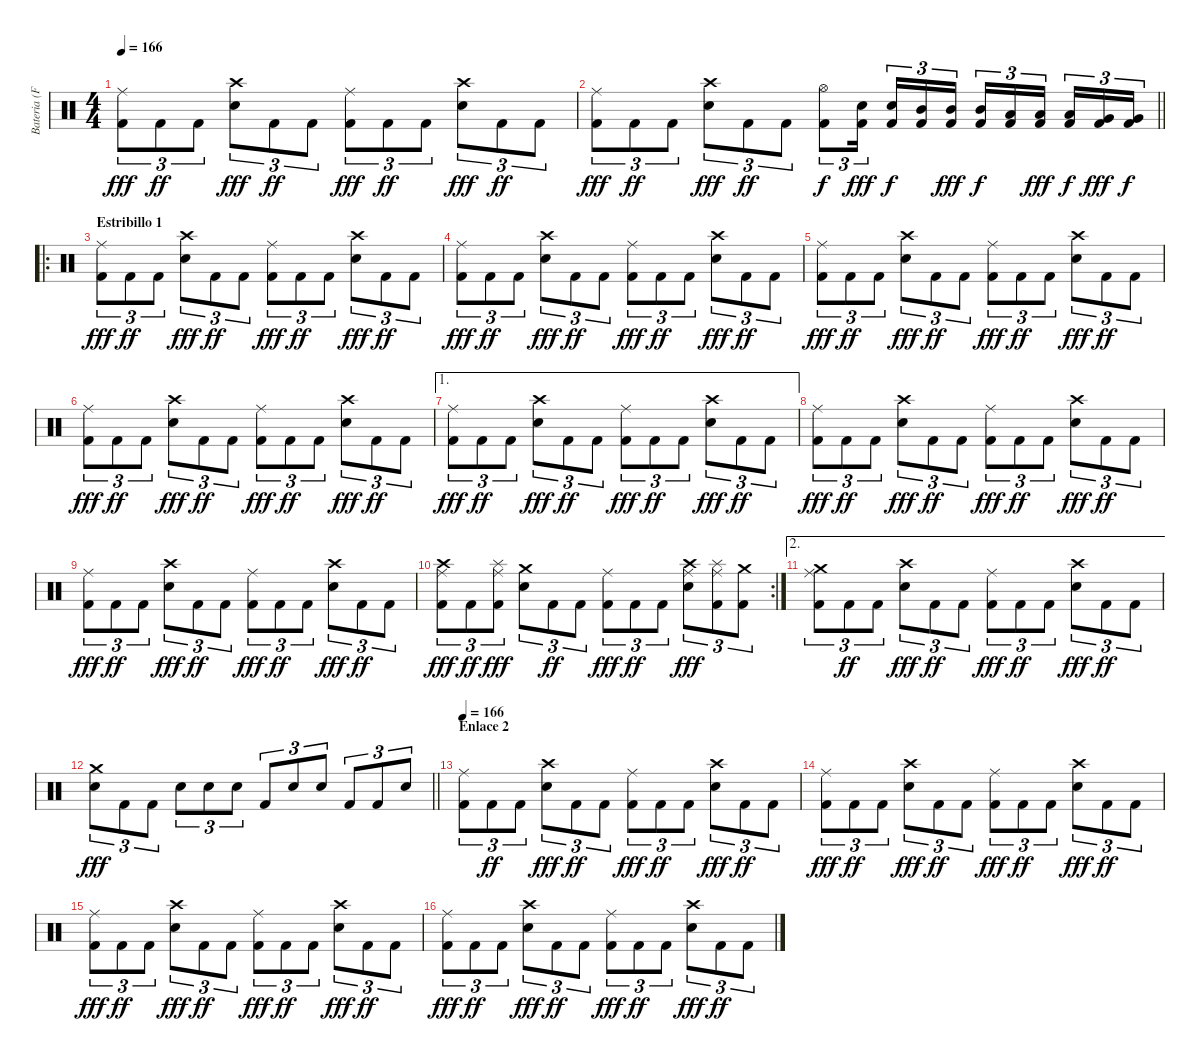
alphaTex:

\track ("Bateria (Fernando Scarcella)" "Bateria (F") {instrument percussion}
\staff {score}
\articulation defaults
\ts (4 4)
\tempo 166
\clef neutral
\ks c
("Kick (hit) 2" "Ride (middle)").8{tu (3 2) dy fff} "Kick (hit) 2".8{tu (3 2) dy ff} "Kick (hit) 2".8{tu (3 2)} ("Electric Snare (hit)" "Crash high (hit)").8{tu (3 2) dy fff} "Kick (hit) 2".8{tu (3 2) dy ff} "Kick (hit) 2".8{tu (3 2)} ("Kick (hit) 2" "Ride (middle)").8{tu (3 2) dy fff} "Kick (hit) 2".8{tu (3 2) dy ff} "Kick (hit) 2".8{tu (3 2)} ("Electric Snare (hit)" "Crash high (hit)").8{tu (3 2) dy fff} "Kick (hit) 2".8{tu (3 2) dy ff} "Kick (hit) 2".8{tu (3 2)} |
\barLineRight lightlight
("Kick (hit) 2" "Ride (middle)").8{tu (3 2) dy fff} "Kick (hit) 2".8{tu (3 2) dy ff} "Kick (hit) 2".8{tu (3 2)} ("Electric Snare (hit)" "Crash high (hit)").8{tu (3 2) dy fff} "Kick (hit) 2".8{tu (3 2) dy ff} "Kick (hit) 2".8{tu (3 2)} ("Hi-Hat (open)" "Kick (hit) 2").8{tu (3 2) dy f} ("Snare (hit) 2" "Kick (hit) 2").16{tu (3 2) dy fff beam splitsecondary} ("Snare (hit) 2" "Kick (hit) 2").16{tu (3 2) dy f} ("Mid Tom (hit)" "Kick (hit) 2").16{tu (3 2)} ("Mid Tom (hit)" "Kick (hit) 2").16{tu (3 2) dy fff} ("Mid Tom (hit)" "Kick (hit) 2").16{tu (3 2) dy f} ("Low Tom (hit)" "Kick (hit) 2").16{tu (3 2)} ("Low Tom (hit)" "Kick (hit) 2").16{tu (3 2) dy fff beam splitsecondary} ("Low Tom (hit)" "Kick (hit) 2").16{tu (3 2) dy f} ("Very Low Tom (hit)" "Kick (hit) 2").16{tu (3 2) dy fff} ("Very Low Tom (hit)" "Kick (hit) 2").16{tu (3 2) dy f} |
\ro
\section ("" "Estribillo 1")
("Kick (hit) 2" "Ride (middle)").8{tu (3 2) dy fff} "Kick (hit) 2".8{tu (3 2) dy ff} "Kick (hit) 2".8{tu (3 2)} ("Electric Snare (hit)" "Crash high (hit)").8{tu (3 2) dy fff} "Kick (hit) 2".8{tu (3 2) dy ff} "Kick (hit) 2".8{tu (3 2)} ("Kick (hit) 2" "Ride (middle)").8{tu (3 2) dy fff} "Kick (hit) 2".8{tu (3 2) dy ff} "Kick (hit) 2".8{tu (3 2)} ("Electric Snare (hit)" "Crash high (hit)").8{tu (3 2) dy fff} "Kick (hit) 2".8{tu (3 2) dy ff} "Kick (hit) 2".8{tu (3 2)} |
("Kick (hit) 2" "Ride (middle)").8{tu (3 2) dy fff} "Kick (hit) 2".8{tu (3 2) dy ff} "Kick (hit) 2".8{tu (3 2)} ("Electric Snare (hit)" "Crash high (hit)").8{tu (3 2) dy fff} "Kick (hit) 2".8{tu (3 2) dy ff} "Kick (hit) 2".8{tu (3 2)} ("Kick (hit) 2" "Ride (middle)").8{tu (3 2) dy fff} "Kick (hit) 2".8{tu (3 2) dy ff} "Kick (hit) 2".8{tu (3 2)} ("Electric Snare (hit)" "Crash high (hit)").8{tu (3 2) dy fff} "Kick (hit) 2".8{tu (3 2) dy ff} "Kick (hit) 2".8{tu (3 2)} |
("Kick (hit) 2" "Ride (middle)").8{tu (3 2) dy fff} "Kick (hit) 2".8{tu (3 2) dy ff} "Kick (hit) 2".8{tu (3 2)} ("Electric Snare (hit)" "Crash high (hit)").8{tu (3 2) dy fff} "Kick (hit) 2".8{tu (3 2) dy ff} "Kick (hit) 2".8{tu (3 2)} ("Kick (hit) 2" "Ride (middle)").8{tu (3 2) dy fff} "Kick (hit) 2".8{tu (3 2) dy ff} "Kick (hit) 2".8{tu (3 2)} ("Electric Snare (hit)" "Crash high (hit)").8{tu (3 2) dy fff} "Kick (hit) 2".8{tu (3 2) dy ff} "Kick (hit) 2".8{tu (3 2)} |
("Kick (hit) 2" "Ride (middle)").8{tu (3 2) dy fff} "Kick (hit) 2".8{tu (3 2) dy ff} "Kick (hit) 2".8{tu (3 2)} ("Electric Snare (hit)" "Crash high (hit)").8{tu (3 2) dy fff} "Kick (hit) 2".8{tu (3 2) dy ff} "Kick (hit) 2".8{tu (3 2)} ("Kick (hit) 2" "Ride (middle)").8{tu (3 2) dy fff} "Kick (hit) 2".8{tu (3 2) dy ff} "Kick (hit) 2".8{tu (3 2)} ("Electric Snare (hit)" "Crash high (hit)").8{tu (3 2) dy fff} "Kick (hit) 2".8{tu (3 2) dy ff} "Kick (hit) 2".8{tu (3 2)} |
\ae 1
("Kick (hit) 2" "Ride (middle)").8{tu (3 2) dy fff} "Kick (hit) 2".8{tu (3 2) dy ff} "Kick (hit) 2".8{tu (3 2)} ("Electric Snare (hit)" "Crash high (hit)").8{tu (3 2) dy fff} "Kick (hit) 2".8{tu (3 2) dy ff} "Kick (hit) 2".8{tu (3 2)} ("Kick (hit) 2" "Ride (middle)").8{tu (3 2) dy fff} "Kick (hit) 2".8{tu (3 2) dy ff} "Kick (hit) 2".8{tu (3 2)} ("Electric Snare (hit)" "Crash high (hit)").8{tu (3 2) dy fff} "Kick (hit) 2".8{tu (3 2) dy ff} "Kick (hit) 2".8{tu (3 2)} |
("Kick (hit) 2" "Ride (middle)").8{tu (3 2) dy fff} "Kick (hit) 2".8{tu (3 2) dy ff} "Kick (hit) 2".8{tu (3 2)} ("Electric Snare (hit)" "Crash high (hit)").8{tu (3 2) dy fff} "Kick (hit) 2".8{tu (3 2) dy ff} "Kick (hit) 2".8{tu (3 2)} ("Kick (hit) 2" "Ride (middle)").8{tu (3 2) dy fff} "Kick (hit) 2".8{tu (3 2) dy ff} "Kick (hit) 2".8{tu (3 2)} ("Electric Snare (hit)" "Crash high (hit)").8{tu (3 2) dy fff} "Kick (hit) 2".8{tu (3 2) dy ff} "Kick (hit) 2".8{tu (3 2)} |
("Kick (hit) 2" "Ride (middle)").8{tu (3 2) dy fff} "Kick (hit) 2".8{tu (3 2) dy ff} "Kick (hit) 2".8{tu (3 2)} ("Electric Snare (hit)" "Crash high (hit)").8{tu (3 2) dy fff} "Kick (hit) 2".8{tu (3 2) dy ff} "Kick (hit) 2".8{tu (3 2)} ("Kick (hit) 2" "Ride (middle)").8{tu (3 2) dy fff} "Kick (hit) 2".8{tu (3 2) dy ff} "Kick (hit) 2".8{tu (3 2)} ("Electric Snare (hit)" "Crash high (hit)").8{tu (3 2) dy fff} "Kick (hit) 2".8{tu (3 2) dy ff} "Kick (hit) 2".8{tu (3 2)} |
\rc 2
("Kick (hit) 2" "Ride (middle)" "Crash high (hit)").8{tu (3 2) dy fff} "Kick (hit) 2".8{tu (3 2) dy ff} ("Kick (hit) 2" "Ride (middle)" "Splash (hit)").8{tu (3 2) dy fff} ("Electric Snare (hit)" "Crash medium (hit)").8{tu (3 2)} "Kick (hit) 2".8{tu (3 2) dy ff} "Kick (hit) 2".8{tu (3 2)} ("Kick (hit) 2" "Ride (middle)").8{tu (3 2) dy fff} "Kick (hit) 2".8{tu (3 2) dy ff} "Kick (hit) 2".8{tu (3 2)} ("Electric Snare (hit)" "Ride (middle)" "Crash high (hit)").8{tu (3 2) dy fff} ("Kick (hit) 2" "Ride (middle)" "Splash (hit)").8{tu (3 2)} ("Kick (hit) 2" "Crash medium (hit)").8{tu (3 2)} |
\ae 2
("Kick (hit) 2" "Ride (middle)" "Crash medium (hit)").8{tu (3 2)} "Kick (hit) 2".8{tu (3 2) dy ff} "Kick (hit) 2".8{tu (3 2)} ("Electric Snare (hit)" "Crash high (hit)").8{tu (3 2) dy fff} "Kick (hit) 2".8{tu (3 2) dy ff} "Kick (hit) 2".8{tu (3 2)} ("Kick (hit) 2" "Ride (middle)").8{tu (3 2) dy fff} "Kick (hit) 2".8{tu (3 2) dy ff} "Kick (hit) 2".8{tu (3 2)} ("Electric Snare (hit)" "Crash high (hit)").8{tu (3 2) dy fff} "Kick (hit) 2".8{tu (3 2) dy ff} "Kick (hit) 2".8{tu (3 2)} |
\barLineRight lightlight
("Crash medium (hit)" "Snare (hit) 2").8{tu (3 2) dy fff} "Kick (hit) 2".8{tu (3 2)} "Kick (hit) 2".8{tu (3 2)} "Snare (hit) 2".8{tu (3 2)} "Snare (hit) 2".8{tu (3 2)} "Snare (hit) 2".8{tu (3 2)} "Kick (hit) 2".8{tu (3 2)} "Electric Snare (hit)".8{tu (3 2)} "Snare (hit) 2".8{tu (3 2)} "Kick (hit) 2".8{tu (3 2)} "Kick (hit) 2".8{tu (3 2)} "Snare (hit) 2".8{tu (3 2)} |
\section ("" "Enlace 2")
\tempo 166
("Kick (hit) 2" "Ride (middle)").8{tu (3 2)} "Kick (hit) 2".8{tu (3 2) dy ff} "Kick (hit) 2".8{tu (3 2)} ("Electric Snare (hit)" "Crash high (hit)").8{tu (3 2) dy fff} "Kick (hit) 2".8{tu (3 2) dy ff} "Kick (hit) 2".8{tu (3 2)} ("Kick (hit) 2" "Ride (middle)").8{tu (3 2) dy fff} "Kick (hit) 2".8{tu (3 2) dy ff} "Kick (hit) 2".8{tu (3 2)} ("Electric Snare (hit)" "Crash high (hit)").8{tu (3 2) dy fff} "Kick (hit) 2".8{tu (3 2) dy ff} "Kick (hit) 2".8{tu (3 2)} |
("Kick (hit) 2" "Ride (middle)").8{tu (3 2) dy fff} "Kick (hit) 2".8{tu (3 2) dy ff} "Kick (hit) 2".8{tu (3 2)} ("Electric Snare (hit)" "Crash high (hit)").8{tu (3 2) dy fff} "Kick (hit) 2".8{tu (3 2) dy ff} "Kick (hit) 2".8{tu (3 2)} ("Kick (hit) 2" "Ride (middle)").8{tu (3 2) dy fff} "Kick (hit) 2".8{tu (3 2) dy ff} "Kick (hit) 2".8{tu (3 2)} ("Electric Snare (hit)" "Crash high (hit)").8{tu (3 2) dy fff} "Kick (hit) 2".8{tu (3 2) dy ff} "Kick (hit) 2".8{tu (3 2)} |
("Kick (hit) 2" "Ride (middle)").8{tu (3 2) dy fff} "Kick (hit) 2".8{tu (3 2) dy ff} "Kick (hit) 2".8{tu (3 2)} ("Electric Snare (hit)" "Crash high (hit)").8{tu (3 2) dy fff} "Kick (hit) 2".8{tu (3 2) dy ff} "Kick (hit) 2".8{tu (3 2)} ("Kick (hit) 2" "Ride (middle)").8{tu (3 2) dy fff} "Kick (hit) 2".8{tu (3 2) dy ff} "Kick (hit) 2".8{tu (3 2)} ("Electric Snare (hit)" "Crash high (hit)").8{tu (3 2) dy fff} "Kick (hit) 2".8{tu (3 2) dy ff} "Kick (hit) 2".8{tu (3 2)} |
("Kick (hit) 2" "Ride (middle)").8{tu (3 2) dy fff} "Kick (hit) 2".8{tu (3 2) dy ff} "Kick (hit) 2".8{tu (3 2)} ("Electric Snare (hit)" "Crash high (hit)").8{tu (3 2) dy fff} "Kick (hit) 2".8{tu (3 2) dy ff} "Kick (hit) 2".8{tu (3 2)} ("Kick (hit) 2" "Ride (middle)").8{tu (3 2) dy fff} "Kick (hit) 2".8{tu (3 2) dy ff} "Kick (hit) 2".8{tu (3 2)} ("Electric Snare (hit)" "Crash high (hit)").8{tu (3 2) dy fff} "Kick (hit) 2".8{tu (3 2) dy ff} "Kick (hit) 2".8{tu (3 2)}
